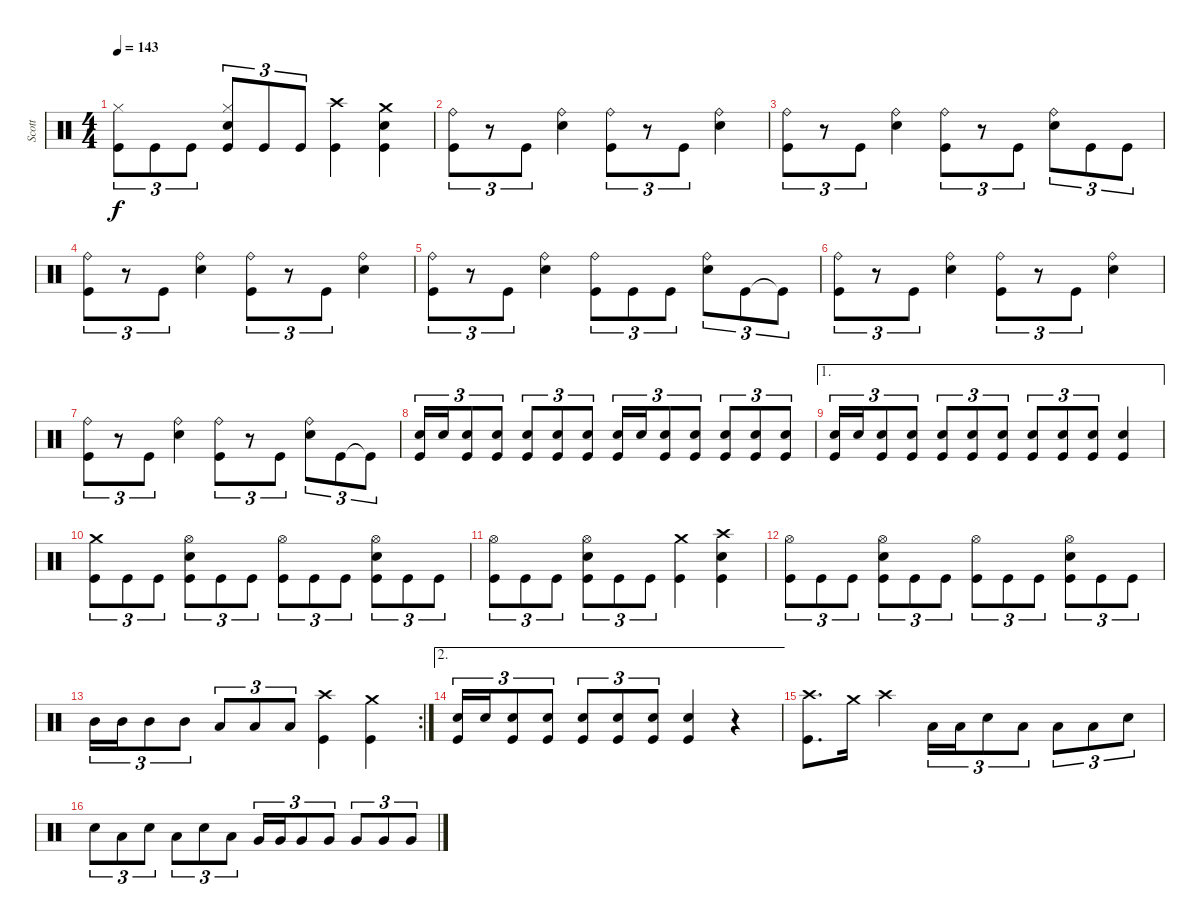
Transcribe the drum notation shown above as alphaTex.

\track ("Scott" "Scott") {instrument percussion}
\staff {score}
\articulation defaults
\ts (4 4)
\tempo 143
\clef neutral
\ks c
("Kick (hit)" "Hi-Hat (closed)").8{tu (3 2) dy f} "Kick (hit)".8{tu (3 2)} "Kick (hit)".8{tu (3 2)} ("Kick (hit)" "Snare (hit) 2" "Hi-Hat (closed)").8{tu (3 2)} "Kick (hit)".8{tu (3 2)} "Kick (hit)".8{tu (3 2)} ("Kick (hit)" "Crash high (hit)").4 ("Kick (hit)" "Snare (hit) 2" "Crash medium (hit)").4 |
("Kick (hit)" "Ride (bell)").8{tu (3 2)} r.8{tu (3 2)} "Kick (hit)".8{tu (3 2)} ("Snare (hit) 2" "Ride (bell)").4 ("Kick (hit)" "Ride (bell)").8{tu (3 2)} r.8{tu (3 2)} "Kick (hit)".8{tu (3 2)} ("Snare (hit) 2" "Ride (bell)").4 |
("Kick (hit)" "Ride (bell)").8{tu (3 2)} r.8{tu (3 2)} "Kick (hit)".8{tu (3 2)} ("Snare (hit) 2" "Ride (bell)").4 ("Kick (hit)" "Ride (bell)").8{tu (3 2)} r.8{tu (3 2)} "Kick (hit)".8{tu (3 2)} ("Snare (hit) 2" "Ride (bell)").8{tu (3 2)} "Kick (hit)".8{tu (3 2)} "Kick (hit)".8{tu (3 2)} |
("Kick (hit)" "Ride (bell)").8{tu (3 2)} r.8{tu (3 2)} "Kick (hit)".8{tu (3 2)} ("Snare (hit) 2" "Ride (bell)").4 ("Kick (hit)" "Ride (bell)").8{tu (3 2)} r.8{tu (3 2)} "Kick (hit)".8{tu (3 2)} ("Snare (hit) 2" "Ride (bell)").4 |
("Kick (hit)" "Ride (bell)").8{tu (3 2)} r.8{tu (3 2)} "Kick (hit)".8{tu (3 2)} ("Snare (hit) 2" "Ride (bell)").4 ("Kick (hit)" "Ride (bell)").8{tu (3 2)} "Kick (hit)".8{tu (3 2)} "Kick (hit)".8{tu (3 2)} ("Snare (hit) 2" "Ride (bell)").8{tu (3 2)} "Kick (hit)".8{tu (3 2)} "Kick (hit)"{t}.8{tu (3 2)} |
("Kick (hit)" "Ride (bell)").8{tu (3 2)} r.8{tu (3 2)} "Kick (hit)".8{tu (3 2)} ("Snare (hit) 2" "Ride (bell)").4 ("Kick (hit)" "Ride (bell)").8{tu (3 2)} r.8{tu (3 2)} "Kick (hit)".8{tu (3 2)} ("Snare (hit) 2" "Ride (bell)").4 |
("Kick (hit)" "Ride (bell)").8{tu (3 2)} r.8{tu (3 2)} "Kick (hit)".8{tu (3 2)} ("Snare (hit) 2" "Ride (bell)").4 ("Kick (hit)" "Ride (bell)").8{tu (3 2)} r.8{tu (3 2)} "Kick (hit)".8{tu (3 2)} ("Snare (hit) 2" "Ride (bell)").8{tu (3 2)} "Kick (hit)".8{tu (3 2)} "Kick (hit)"{t}.8{tu (3 2)} |
("Kick (hit)" "Snare (hit) 2").16{tu (3 2)} "Snare (hit) 2".16{tu (3 2)} ("Kick (hit)" "Snare (hit) 2").8{tu (3 2)} ("Kick (hit)" "Snare (hit) 2").8{tu (3 2)} ("Kick (hit)" "Snare (hit) 2").8{tu (3 2)} ("Kick (hit)" "Snare (hit) 2").8{tu (3 2)} ("Kick (hit)" "Snare (hit) 2").8{tu (3 2)} ("Kick (hit)" "Snare (hit) 2").16{tu (3 2)} "Snare (hit) 2".16{tu (3 2)} ("Kick (hit)" "Snare (hit) 2").8{tu (3 2)} ("Kick (hit)" "Snare (hit) 2").8{tu (3 2)} ("Kick (hit)" "Snare (hit) 2").8{tu (3 2)} ("Kick (hit)" "Snare (hit) 2").8{tu (3 2)} ("Kick (hit)" "Snare (hit) 2").8{tu (3 2)} |
\ae 1
("Kick (hit)" "Snare (hit) 2").16{tu (3 2)} "Snare (hit) 2".16{tu (3 2)} ("Kick (hit)" "Snare (hit) 2").8{tu (3 2)} ("Kick (hit)" "Snare (hit) 2").8{tu (3 2)} ("Kick (hit)" "Snare (hit) 2").8{tu (3 2)} ("Kick (hit)" "Snare (hit) 2").8{tu (3 2)} ("Kick (hit)" "Snare (hit) 2").8{tu (3 2)} ("Kick (hit)" "Snare (hit) 2").8{tu (3 2)} ("Kick (hit)" "Snare (hit) 2").8{tu (3 2)} ("Kick (hit)" "Snare (hit) 2").8{tu (3 2)} ("Kick (hit)" "Snare (hit) 2").4 |
("Kick (hit)" "Crash medium (hit)").8{tu (3 2)} "Kick (hit)".8{tu (3 2)} "Kick (hit)".8{tu (3 2)} ("Kick (hit)" "Snare (hit) 2" "Hi-Hat (open)").8{tu (3 2)} "Kick (hit)".8{tu (3 2)} "Kick (hit)".8{tu (3 2)} ("Kick (hit)" "Hi-Hat (open)").8{tu (3 2)} "Kick (hit)".8{tu (3 2)} "Kick (hit)".8{tu (3 2)} ("Kick (hit)" "Snare (hit) 2" "Hi-Hat (open)").8{tu (3 2)} "Kick (hit)".8{tu (3 2)} "Kick (hit)".8{tu (3 2)} |
("Kick (hit)" "Hi-Hat (open)").8{tu (3 2)} "Kick (hit)".8{tu (3 2)} "Kick (hit)".8{tu (3 2)} ("Kick (hit)" "Snare (hit) 2" "Hi-Hat (open)").8{tu (3 2)} "Kick (hit)".8{tu (3 2)} "Kick (hit)".8{tu (3 2)} ("Kick (hit)" "Crash medium (hit)").4 ("Kick (hit)" "Snare (hit) 2" "Crash high (hit)").4 |
("Kick (hit)" "Hi-Hat (open)").8{tu (3 2)} "Kick (hit)".8{tu (3 2)} "Kick (hit)".8{tu (3 2)} ("Kick (hit)" "Snare (hit) 2" "Hi-Hat (open)").8{tu (3 2)} "Kick (hit)".8{tu (3 2)} "Kick (hit)".8{tu (3 2)} ("Kick (hit)" "Hi-Hat (open)").8{tu (3 2)} "Kick (hit)".8{tu (3 2)} "Kick (hit)".8{tu (3 2)} ("Kick (hit)" "Snare (hit) 2" "Hi-Hat (open)").8{tu (3 2)} "Kick (hit)".8{tu (3 2)} "Kick (hit)".8{tu (3 2)} |
\rc 2 "Mid Tom (hit)".16{tu (3 2)} "Mid Tom (hit)".16{tu (3 2)} "Mid Tom (hit)".8{tu (3 2)} "Mid Tom (hit)".8{tu (3 2)} "Low Tom (hit)".8{tu (3 2)} "Low Tom (hit)".8{tu (3 2)} "Low Tom (hit)".8{tu (3 2)}
("Kick (hit)" "Crash high (hit)").4 ("Kick (hit)" "Crash medium (hit)").4 |
\ae 2
("Kick (hit)" "Snare (hit) 2").16{tu (3 2)} "Snare (hit) 2".16{tu (3 2)} ("Kick (hit)" "Snare (hit) 2").8{tu (3 2)} ("Kick (hit)" "Snare (hit) 2").8{tu (3 2)} ("Kick (hit)" "Snare (hit) 2").8{tu (3 2)} ("Kick (hit)" "Snare (hit) 2").8{tu (3 2)} ("Kick (hit)" "Snare (hit) 2").8{tu (3 2)} ("Kick (hit)" "Snare (hit) 2").4 r.4 |
("Kick (hit)" "Crash high (hit)").8{d} "Crash medium (hit)".16 "Crash high (hit)".4 "Low Tom (hit)".16{tu (3 2)} "Low Tom (hit)".16{tu (3 2)} "Snare (hit) 2".8{tu (3 2)} "Low Tom (hit)".8{tu (3 2)} "Low Tom (hit)".8{tu (3 2)} "Low Tom (hit)".8{tu (3 2)} "Snare (hit) 2".8{tu (3 2)} |
"Snare (hit) 2".8{tu (3 2)} "Low Tom (hit)".8{tu (3 2)} "Snare (hit) 2".8{tu (3 2)} "Low Tom (hit)".8{tu (3 2)} "Snare (hit) 2".8{tu (3 2)} "Low Tom (hit)".8{tu (3 2)} "Very Low Tom (hit)".16{tu (3 2)} "Very Low Tom (hit)".16{tu (3 2)} "Very Low Tom (hit)".8{tu (3 2)} "Very Low Tom (hit)".8{tu (3 2)} "Very Low Tom (hit)".8{tu (3 2)} "Very Low Tom (hit)".8{tu (3 2)} "Very Low Tom (hit)".8{tu (3 2)}
